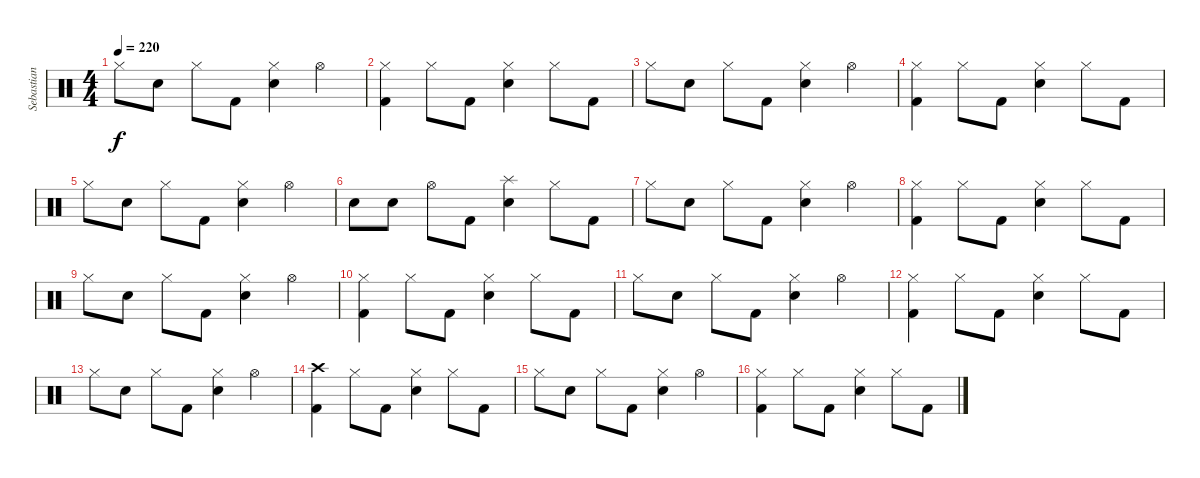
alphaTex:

\track ("Sebastian" "Sebastian") {instrument percussion}
\staff {score}
\articulation defaults
\ts (4 4)
\tempo 220
\clef neutral
\ks c "Hi-Hat (closed)".8{dy f} "Snare (hit) 2".8 "Hi-Hat (closed)".8 "Kick (hit) 2".8
("Hi-Hat (closed)" "Snare (hit) 2").4 "Hi-Hat (open)".4 |
("Hi-Hat (closed)" "Kick (hit) 2").4 "Hi-Hat (closed)".8 "Kick (hit) 2".8 ("Hi-Hat (closed)" "Snare (hit) 2").4 "Hi-Hat (closed)".8 "Kick (hit) 2".8 |
"Hi-Hat (closed)".8 "Snare (hit) 2".8 "Hi-Hat (closed)".8 "Kick (hit) 2".8 ("Hi-Hat (closed)" "Snare (hit) 2").4 "Hi-Hat (open)".4 |
("Hi-Hat (closed)" "Kick (hit) 2").4 "Hi-Hat (closed)".8 "Kick (hit) 2".8 ("Hi-Hat (closed)" "Snare (hit) 2").4 "Hi-Hat (closed)".8 "Kick (hit) 2".8 |
"Hi-Hat (closed)".8 "Snare (hit) 2".8 "Hi-Hat (closed)".8 "Kick (hit) 2".8 ("Hi-Hat (closed)" "Snare (hit) 2").4 "Hi-Hat (open)".4 |
"Snare (hit) 2".8 "Snare (hit) 2".8 "Hi-Hat (open)".8 "Kick (hit) 2".8 ("Splash (hit)" "Snare (hit) 2").4 "Hi-Hat (closed)".8 "Kick (hit) 2".8 |
"Hi-Hat (closed)".8 "Snare (hit) 2".8 "Hi-Hat (closed)".8 "Kick (hit) 2".8 ("Hi-Hat (closed)" "Snare (hit) 2").4 "Hi-Hat (open)".4 |
("Hi-Hat (closed)" "Kick (hit) 2").4 "Hi-Hat (closed)".8 "Kick (hit) 2".8 ("Hi-Hat (closed)" "Snare (hit) 2").4 "Hi-Hat (closed)".8 "Kick (hit) 2".8 |
"Hi-Hat (closed)".8 "Snare (hit) 2".8 "Hi-Hat (closed)".8 "Kick (hit) 2".8 ("Hi-Hat (closed)" "Snare (hit) 2").4 "Hi-Hat (open)".4 |
("Hi-Hat (closed)" "Kick (hit) 2").4 "Hi-Hat (closed)".8 "Kick (hit) 2".8 ("Hi-Hat (closed)" "Snare (hit) 2").4 "Hi-Hat (closed)".8 "Kick (hit) 2".8 |
"Hi-Hat (closed)".8 "Snare (hit) 2".8 "Hi-Hat (closed)".8 "Kick (hit) 2".8 ("Hi-Hat (closed)" "Snare (hit) 2").4 "Hi-Hat (open)".4 |
("Hi-Hat (closed)" "Kick (hit) 2").4 "Hi-Hat (closed)".8 "Kick (hit) 2".8 ("Hi-Hat (closed)" "Snare (hit) 2").4 "Hi-Hat (closed)".8 "Kick (hit) 2".8 |
"Hi-Hat (closed)".8 "Snare (hit) 2".8 "Hi-Hat (closed)".8 "Kick (hit) 2".8 ("Hi-Hat (closed)" "Snare (hit) 2").4 "Hi-Hat (open)".4 |
("Crash high (hit)" "Kick (hit) 2").4 "Hi-Hat (closed)".8 "Kick (hit) 2".8 ("Hi-Hat (closed)" "Snare (hit) 2").4 "Hi-Hat (closed)".8 "Kick (hit) 2".8 |
"Hi-Hat (closed)".8 "Snare (hit) 2".8 "Hi-Hat (closed)".8 "Kick (hit) 2".8 ("Hi-Hat (closed)" "Snare (hit) 2").4 "Hi-Hat (open)".4 |
("Hi-Hat (closed)" "Kick (hit) 2").4 "Hi-Hat (closed)".8 "Kick (hit) 2".8 ("Hi-Hat (closed)" "Snare (hit) 2").4 "Hi-Hat (closed)".8 "Kick (hit) 2".8
